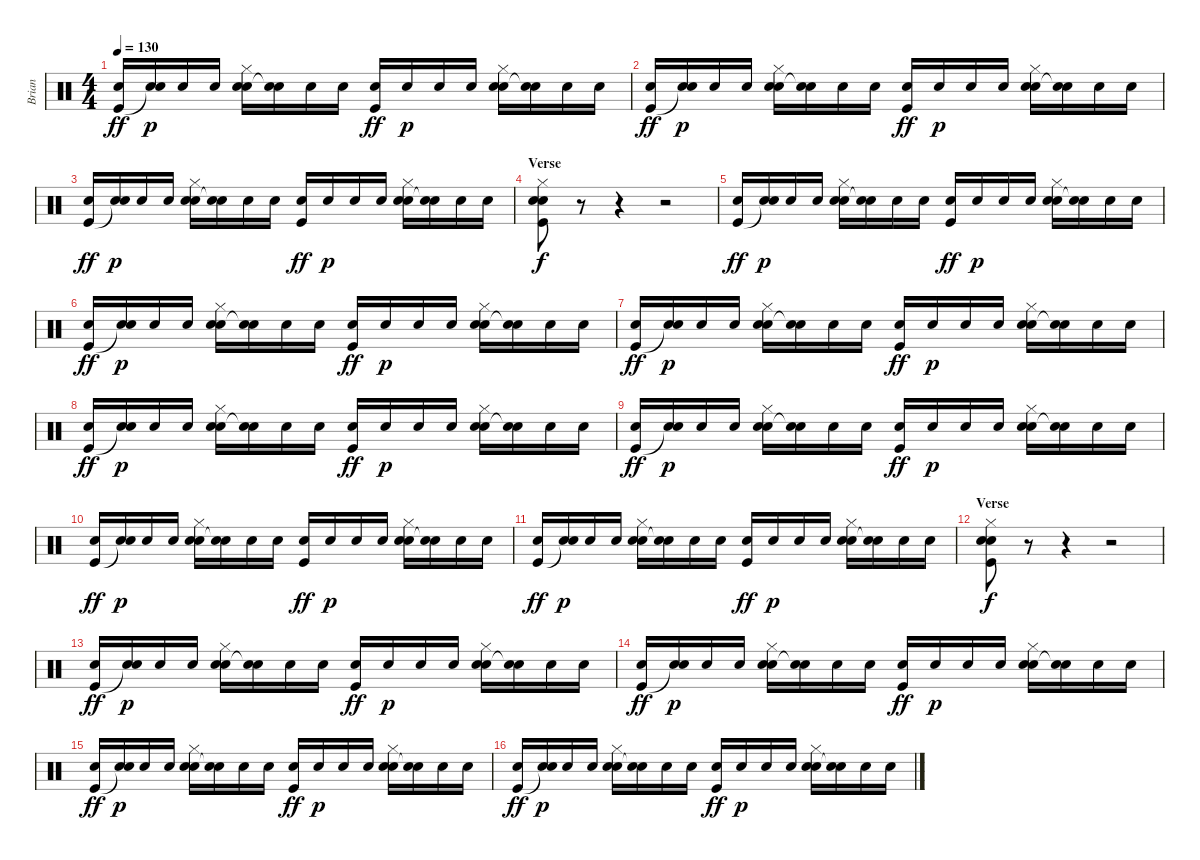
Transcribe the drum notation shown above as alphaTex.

\track ("Brian" "Brian") {instrument percussion}
\staff {score}
\articulation defaults
\ts (4 4)
\tempo 130
\clef neutral
\ks c
("Snare (hit) 2" "Kick (hit)").16{dy ff} ("Snare (hit) 2" "Snare (hit)"{t}).16{dy p} "Snare (hit) 2".16 "Snare (hit) 2".16 ("Snare (hit) 2" "Hi-Hat (closed)" "Snare (hit) 2").16 ("Snare (hit)"{t} "Snare (hit) 2").16 "Snare (hit) 2".16 "Snare (hit) 2".16 ("Snare (hit) 2" "Kick (hit)").16{dy ff} "Snare (hit) 2".16{dy p} "Snare (hit) 2".16 "Snare (hit) 2".16 ("Snare (hit) 2" "Hi-Hat (closed)" "Snare (hit) 2").16 ("Snare (hit)"{t} "Snare (hit) 2").16 "Snare (hit) 2".16 "Snare (hit) 2".16 |
("Snare (hit) 2" "Kick (hit)").16{dy ff} ("Snare (hit) 2" "Snare (hit)"{t}).16{dy p} "Snare (hit) 2".16 "Snare (hit) 2".16 ("Snare (hit) 2" "Hi-Hat (closed)" "Snare (hit) 2").16 ("Snare (hit)"{t} "Snare (hit) 2").16 "Snare (hit) 2".16 "Snare (hit) 2".16 ("Snare (hit) 2" "Kick (hit)").16{dy ff} "Snare (hit) 2".16{dy p} "Snare (hit) 2".16 "Snare (hit) 2".16 ("Snare (hit) 2" "Hi-Hat (closed)" "Snare (hit) 2").16 ("Snare (hit)"{t} "Snare (hit) 2").16 "Snare (hit) 2".16 "Snare (hit) 2".16 |
("Snare (hit) 2" "Kick (hit)").16{dy ff} ("Snare (hit) 2" "Snare (hit)"{t}).16{dy p} "Snare (hit) 2".16 "Snare (hit) 2".16 ("Snare (hit) 2" "Hi-Hat (closed)" "Snare (hit) 2").16 ("Snare (hit)"{t} "Snare (hit) 2").16 "Snare (hit) 2".16 "Snare (hit) 2".16 ("Snare (hit) 2" "Kick (hit)").16{dy ff} "Snare (hit) 2".16{dy p} "Snare (hit) 2".16 "Snare (hit) 2".16 ("Snare (hit) 2" "Hi-Hat (closed)" "Snare (hit) 2").16 ("Snare (hit)"{t} "Snare (hit) 2").16 "Snare (hit) 2".16 "Snare (hit) 2".16 |
\section ("" "Verse")
("Snare (hit) 2" "Hi-Hat (closed)" "Snare (hit) 2" "Kick (hit)").8{dy f} r.8 r.4 r.2 |
("Snare (hit) 2" "Kick (hit)").16{dy ff} ("Snare (hit) 2" "Snare (hit)"{t}).16{dy p} "Snare (hit) 2".16 "Snare (hit) 2".16 ("Snare (hit) 2" "Hi-Hat (closed)" "Snare (hit) 2").16 ("Snare (hit)"{t} "Snare (hit) 2").16 "Snare (hit) 2".16 "Snare (hit) 2".16 ("Snare (hit) 2" "Kick (hit)").16{dy ff} "Snare (hit) 2".16{dy p} "Snare (hit) 2".16 "Snare (hit) 2".16 ("Snare (hit) 2" "Hi-Hat (closed)" "Snare (hit) 2").16 ("Snare (hit)"{t} "Snare (hit) 2").16 "Snare (hit) 2".16 "Snare (hit) 2".16 |
("Snare (hit) 2" "Kick (hit)").16{dy ff} ("Snare (hit) 2" "Snare (hit)"{t}).16{dy p} "Snare (hit) 2".16 "Snare (hit) 2".16 ("Snare (hit) 2" "Hi-Hat (closed)" "Snare (hit) 2").16 ("Snare (hit)"{t} "Snare (hit) 2").16 "Snare (hit) 2".16 "Snare (hit) 2".16 ("Snare (hit) 2" "Kick (hit)").16{dy ff} "Snare (hit) 2".16{dy p} "Snare (hit) 2".16 "Snare (hit) 2".16 ("Snare (hit) 2" "Hi-Hat (closed)" "Snare (hit) 2").16 ("Snare (hit)"{t} "Snare (hit) 2").16 "Snare (hit) 2".16 "Snare (hit) 2".16 |
("Snare (hit) 2" "Kick (hit)").16{dy ff} ("Snare (hit) 2" "Snare (hit)"{t}).16{dy p} "Snare (hit) 2".16 "Snare (hit) 2".16 ("Snare (hit) 2" "Hi-Hat (closed)" "Snare (hit) 2").16 ("Snare (hit)"{t} "Snare (hit) 2").16 "Snare (hit) 2".16 "Snare (hit) 2".16 ("Snare (hit) 2" "Kick (hit)").16{dy ff} "Snare (hit) 2".16{dy p} "Snare (hit) 2".16 "Snare (hit) 2".16 ("Snare (hit) 2" "Hi-Hat (closed)" "Snare (hit) 2").16 ("Snare (hit)"{t} "Snare (hit) 2").16 "Snare (hit) 2".16 "Snare (hit) 2".16 |
("Snare (hit) 2" "Kick (hit)").16{dy ff} ("Snare (hit) 2" "Snare (hit)"{t}).16{dy p} "Snare (hit) 2".16 "Snare (hit) 2".16 ("Snare (hit) 2" "Hi-Hat (closed)" "Snare (hit) 2").16 ("Snare (hit)"{t} "Snare (hit) 2").16 "Snare (hit) 2".16 "Snare (hit) 2".16 ("Snare (hit) 2" "Kick (hit)").16{dy ff} "Snare (hit) 2".16{dy p} "Snare (hit) 2".16 "Snare (hit) 2".16 ("Snare (hit) 2" "Hi-Hat (closed)" "Snare (hit) 2").16 ("Snare (hit)"{t} "Snare (hit) 2").16 "Snare (hit) 2".16 "Snare (hit) 2".16 |
("Snare (hit) 2" "Kick (hit)").16{dy ff} ("Snare (hit) 2" "Snare (hit)"{t}).16{dy p} "Snare (hit) 2".16 "Snare (hit) 2".16 ("Snare (hit) 2" "Hi-Hat (closed)" "Snare (hit) 2").16 ("Snare (hit)"{t} "Snare (hit) 2").16 "Snare (hit) 2".16 "Snare (hit) 2".16 ("Snare (hit) 2" "Kick (hit)").16{dy ff} "Snare (hit) 2".16{dy p} "Snare (hit) 2".16 "Snare (hit) 2".16 ("Snare (hit) 2" "Hi-Hat (closed)" "Snare (hit) 2").16 ("Snare (hit)"{t} "Snare (hit) 2").16 "Snare (hit) 2".16 "Snare (hit) 2".16 |
("Snare (hit) 2" "Kick (hit)").16{dy ff} ("Snare (hit) 2" "Snare (hit)"{t}).16{dy p} "Snare (hit) 2".16 "Snare (hit) 2".16 ("Snare (hit) 2" "Hi-Hat (closed)" "Snare (hit) 2").16 ("Snare (hit)"{t} "Snare (hit) 2").16 "Snare (hit) 2".16 "Snare (hit) 2".16 ("Snare (hit) 2" "Kick (hit)").16{dy ff} "Snare (hit) 2".16{dy p} "Snare (hit) 2".16 "Snare (hit) 2".16 ("Snare (hit) 2" "Hi-Hat (closed)" "Snare (hit) 2").16 ("Snare (hit)"{t} "Snare (hit) 2").16 "Snare (hit) 2".16 "Snare (hit) 2".16 |
("Snare (hit) 2" "Kick (hit)").16{dy ff} ("Snare (hit) 2" "Snare (hit)"{t}).16{dy p} "Snare (hit) 2".16 "Snare (hit) 2".16 ("Snare (hit) 2" "Hi-Hat (closed)" "Snare (hit) 2").16 ("Snare (hit)"{t} "Snare (hit) 2").16 "Snare (hit) 2".16 "Snare (hit) 2".16 ("Snare (hit) 2" "Kick (hit)").16{dy ff} "Snare (hit) 2".16{dy p} "Snare (hit) 2".16 "Snare (hit) 2".16 ("Snare (hit) 2" "Hi-Hat (closed)" "Snare (hit) 2").16 ("Snare (hit)"{t} "Snare (hit) 2").16 "Snare (hit) 2".16 "Snare (hit) 2".16 |
\section ("" "Verse")
("Snare (hit) 2" "Hi-Hat (closed)" "Snare (hit) 2" "Kick (hit)").8{dy f} r.8 r.4 r.2 |
("Snare (hit) 2" "Kick (hit)").16{dy ff} ("Snare (hit) 2" "Snare (hit)"{t}).16{dy p} "Snare (hit) 2".16 "Snare (hit) 2".16 ("Snare (hit) 2" "Hi-Hat (closed)" "Snare (hit) 2").16 ("Snare (hit)"{t} "Snare (hit) 2").16 "Snare (hit) 2".16 "Snare (hit) 2".16 ("Snare (hit) 2" "Kick (hit)").16{dy ff} "Snare (hit) 2".16{dy p} "Snare (hit) 2".16 "Snare (hit) 2".16 ("Snare (hit) 2" "Hi-Hat (closed)" "Snare (hit) 2").16 ("Snare (hit)"{t} "Snare (hit) 2").16 "Snare (hit) 2".16 "Snare (hit) 2".16 |
("Snare (hit) 2" "Kick (hit)").16{dy ff} ("Snare (hit) 2" "Snare (hit)"{t}).16{dy p} "Snare (hit) 2".16 "Snare (hit) 2".16 ("Snare (hit) 2" "Hi-Hat (closed)" "Snare (hit) 2").16 ("Snare (hit)"{t} "Snare (hit) 2").16 "Snare (hit) 2".16 "Snare (hit) 2".16 ("Snare (hit) 2" "Kick (hit)").16{dy ff} "Snare (hit) 2".16{dy p} "Snare (hit) 2".16 "Snare (hit) 2".16 ("Snare (hit) 2" "Hi-Hat (closed)" "Snare (hit) 2").16 ("Snare (hit)"{t} "Snare (hit) 2").16 "Snare (hit) 2".16 "Snare (hit) 2".16 |
("Snare (hit) 2" "Kick (hit)").16{dy ff} ("Snare (hit) 2" "Snare (hit)"{t}).16{dy p} "Snare (hit) 2".16 "Snare (hit) 2".16 ("Snare (hit) 2" "Hi-Hat (closed)" "Snare (hit) 2").16 ("Snare (hit)"{t} "Snare (hit) 2").16 "Snare (hit) 2".16 "Snare (hit) 2".16 ("Snare (hit) 2" "Kick (hit)").16{dy ff} "Snare (hit) 2".16{dy p} "Snare (hit) 2".16 "Snare (hit) 2".16 ("Snare (hit) 2" "Hi-Hat (closed)" "Snare (hit) 2").16 ("Snare (hit)"{t} "Snare (hit) 2").16 "Snare (hit) 2".16 "Snare (hit) 2".16 |
("Snare (hit) 2" "Kick (hit)").16{dy ff} ("Snare (hit) 2" "Snare (hit)"{t}).16{dy p} "Snare (hit) 2".16 "Snare (hit) 2".16 ("Snare (hit) 2" "Hi-Hat (closed)" "Snare (hit) 2").16 ("Snare (hit)"{t} "Snare (hit) 2").16 "Snare (hit) 2".16 "Snare (hit) 2".16 ("Snare (hit) 2" "Kick (hit)").16{dy ff} "Snare (hit) 2".16{dy p} "Snare (hit) 2".16 "Snare (hit) 2".16 ("Snare (hit) 2" "Hi-Hat (closed)" "Snare (hit) 2").16 ("Snare (hit)"{t} "Snare (hit) 2").16 "Snare (hit) 2".16 "Snare (hit) 2".16
